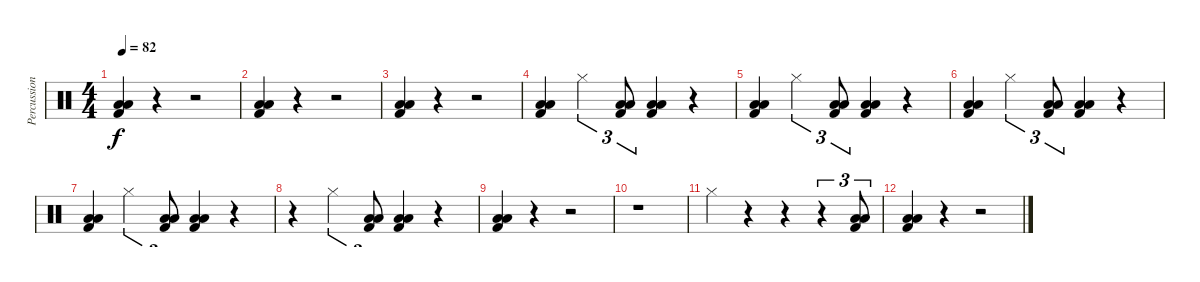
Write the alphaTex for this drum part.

\track ("Percussion" "Percussion") {instrument percussion}
\staff {score}
\articulation defaults
\ts (4 4)
\tempo 82
\clef neutral
\ks c
("Low Tom (hit)" "Kick (hit) 2" "Low Floor Tom (hit)").4{dy f} r.4 r.2 |
("Low Tom (hit)" "Kick (hit) 2" "Low Floor Tom (hit)").4 r.4 r.2 |
("Low Tom (hit)" "Kick (hit) 2" "Low Floor Tom (hit)").4 r.4 r.2 |
("Low Tom (hit)" "Kick (hit) 2" "Low Floor Tom (hit)").4 "Hi-Hat (closed)".4{tu (3 2)} ("Low Tom (hit)" "Kick (hit) 2" "Low Floor Tom (hit)").8{tu (3 2)} ("Low Tom (hit)" "Kick (hit) 2" "Low Floor Tom (hit)").4 r.4 |
("Low Tom (hit)" "Kick (hit) 2" "Low Floor Tom (hit)").4 "Hi-Hat (closed)".4{tu (3 2)} ("Low Tom (hit)" "Kick (hit) 2" "Low Floor Tom (hit)").8{tu (3 2)} ("Low Tom (hit)" "Kick (hit) 2" "Low Floor Tom (hit)").4 r.4 |
("Low Tom (hit)" "Kick (hit) 2" "Low Floor Tom (hit)").4 "Hi-Hat (closed)".4{tu (3 2)} ("Low Tom (hit)" "Kick (hit) 2" "Low Floor Tom (hit)").8{tu (3 2)} ("Low Tom (hit)" "Kick (hit) 2" "Low Floor Tom (hit)").4 r.4 |
("Low Tom (hit)" "Kick (hit) 2" "Low Floor Tom (hit)").4 "Hi-Hat (closed)".4{tu (3 2)} ("Low Tom (hit)" "Kick (hit) 2" "Low Floor Tom (hit)").8{tu (3 2)} ("Low Tom (hit)" "Kick (hit) 2" "Low Floor Tom (hit)").4 r.4 |
r.4 "Hi-Hat (closed)".4{tu (3 2)} ("Low Tom (hit)" "Kick (hit) 2" "Low Floor Tom (hit)").8{tu (3 2)} ("Low Tom (hit)" "Kick (hit) 2" "Low Floor Tom (hit)").4 r.4 |
("Low Tom (hit)" "Kick (hit) 2" "Low Floor Tom (hit)").4 r.4 r.2 |
r.1 |
"Hi-Hat (closed)".4 r.4 r.4 r.4{tu (3 2)} ("Low Tom (hit)" "Kick (hit) 2" "Low Floor Tom (hit)").8{tu (3 2)} |
("Low Tom (hit)" "Kick (hit) 2" "Low Floor Tom (hit)").4 r.4 r.2
